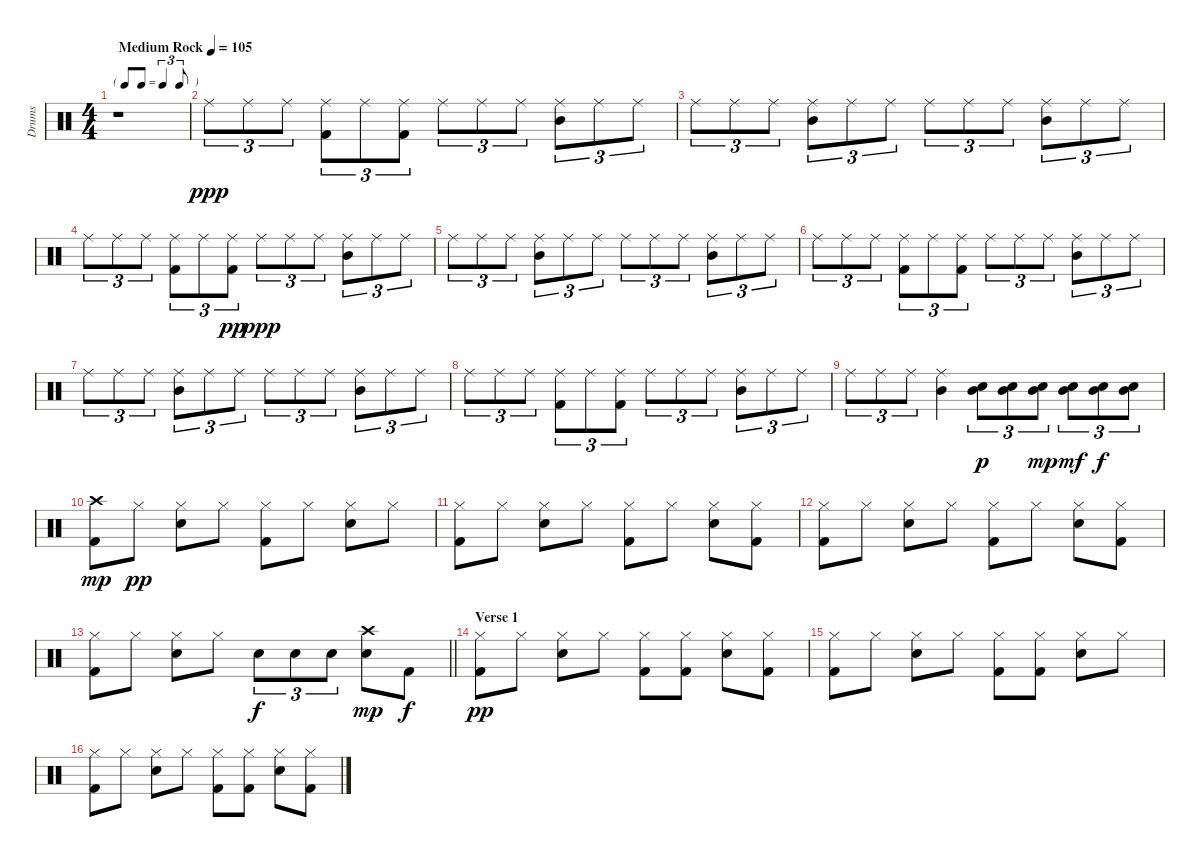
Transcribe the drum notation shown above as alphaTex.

\track ("Drums" "Drums") {instrument percussion}
\staff {score}
\articulation defaults
\ts (4 4)
\tf triplet8th
\tempo (105 "Medium Rock")
\clef neutral
\ks c
r.1{dy ppp} |
"Ride (middle)".8{tu (3 2)} "Ride (middle)".8{tu (3 2)} "Ride (middle)".8{tu (3 2)} ("Ride (middle)" "Kick (hit) 2").8{tu (3 2)} "Ride (middle)".8{tu (3 2)} ("Ride (middle)" "Kick (hit) 2").8{tu (3 2)} "Ride (middle)".8{tu (3 2)} "Ride (middle)".8{tu (3 2)} "Ride (middle)".8{tu (3 2)} ("Ride (middle)" "Mid Tom (hit)").8{tu (3 2)} "Ride (middle)".8{tu (3 2)} "Ride (middle)".8{tu (3 2)} |
"Ride (middle)".8{tu (3 2)} "Ride (middle)".8{tu (3 2)} "Ride (middle)".8{tu (3 2)} ("Ride (middle)" "Mid Tom (hit)").8{tu (3 2)} "Ride (middle)".8{tu (3 2)} "Ride (middle)".8{tu (3 2)} "Ride (middle)".8{tu (3 2)} "Ride (middle)".8{tu (3 2)} "Ride (middle)".8{tu (3 2)} ("Ride (middle)" "Mid Tom (hit)").8{tu (3 2)} "Ride (middle)".8{tu (3 2)} "Ride (middle)".8{tu (3 2)} |
"Ride (middle)".8{tu (3 2)} "Ride (middle)".8{tu (3 2)} "Ride (middle)".8{tu (3 2)} ("Ride (middle)" "Kick (hit) 2").8{tu (3 2)} "Ride (middle)".8{tu (3 2)} ("Ride (middle)" "Kick (hit) 2").8{tu (3 2) dy pp} "Ride (middle)".8{tu (3 2) dy ppp} "Ride (middle)".8{tu (3 2)} "Ride (middle)".8{tu (3 2)} ("Ride (middle)" "Mid Tom (hit)").8{tu (3 2)} "Ride (middle)".8{tu (3 2)} "Ride (middle)".8{tu (3 2)} |
"Ride (middle)".8{tu (3 2)} "Ride (middle)".8{tu (3 2)} "Ride (middle)".8{tu (3 2)} ("Ride (middle)" "Mid Tom (hit)").8{tu (3 2)} "Ride (middle)".8{tu (3 2)} "Ride (middle)".8{tu (3 2)} "Ride (middle)".8{tu (3 2)} "Ride (middle)".8{tu (3 2)} "Ride (middle)".8{tu (3 2)} ("Ride (middle)" "Mid Tom (hit)").8{tu (3 2)} "Ride (middle)".8{tu (3 2)} "Ride (middle)".8{tu (3 2)} |
"Ride (middle)".8{tu (3 2)} "Ride (middle)".8{tu (3 2)} "Ride (middle)".8{tu (3 2)} ("Ride (middle)" "Kick (hit) 2").8{tu (3 2)} "Ride (middle)".8{tu (3 2)} ("Ride (middle)" "Kick (hit) 2").8{tu (3 2)} "Ride (middle)".8{tu (3 2)} "Ride (middle)".8{tu (3 2)} "Ride (middle)".8{tu (3 2)} ("Ride (middle)" "Mid Tom (hit)").8{tu (3 2)} "Ride (middle)".8{tu (3 2)} "Ride (middle)".8{tu (3 2)} |
"Ride (middle)".8{tu (3 2)} "Ride (middle)".8{tu (3 2)} "Ride (middle)".8{tu (3 2)} ("Ride (middle)" "Mid Tom (hit)").8{tu (3 2)} "Ride (middle)".8{tu (3 2)} "Ride (middle)".8{tu (3 2)} "Ride (middle)".8{tu (3 2)} "Ride (middle)".8{tu (3 2)} "Ride (middle)".8{tu (3 2)} ("Ride (middle)" "Mid Tom (hit)").8{tu (3 2)} "Ride (middle)".8{tu (3 2)} "Ride (middle)".8{tu (3 2)} |
"Ride (middle)".8{tu (3 2)} "Ride (middle)".8{tu (3 2)} "Ride (middle)".8{tu (3 2)} ("Ride (middle)" "Kick (hit) 2").8{tu (3 2)} "Ride (middle)".8{tu (3 2)} ("Ride (middle)" "Kick (hit) 2").8{tu (3 2)} "Ride (middle)".8{tu (3 2)} "Ride (middle)".8{tu (3 2)} "Ride (middle)".8{tu (3 2)} ("Ride (middle)" "Mid Tom (hit)").8{tu (3 2)} "Ride (middle)".8{tu (3 2)} "Ride (middle)".8{tu (3 2)} |
"Ride (middle)".8{tu (3 2)} "Ride (middle)".8{tu (3 2)} "Ride (middle)".8{tu (3 2)} ("Ride (middle)" "Mid Tom (hit)").4 ("Mid Tom (hit)" "Electric Snare (hit)").8{tu (3 2) dy p} ("Mid Tom (hit)" "Electric Snare (hit)").8{tu (3 2)} ("Mid Tom (hit)" "Electric Snare (hit)").8{tu (3 2) dy mp} ("Mid Tom (hit)" "Electric Snare (hit)").8{tu (3 2) dy mf} ("Mid Tom (hit)" "Electric Snare (hit)").8{tu (3 2) dy f} ("Mid Tom (hit)" "Electric Snare (hit)").8{tu (3 2)} |
("Crash high (hit)" "Kick (hit) 2").8{dy mp} "Hi-Hat (closed)".8{dy pp} ("Hi-Hat (closed)" "Electric Snare (hit)").8 "Hi-Hat (closed)".8 ("Hi-Hat (closed)" "Kick (hit) 2").8 "Hi-Hat (closed)".8 ("Hi-Hat (closed)" "Electric Snare (hit)").8 "Hi-Hat (closed)".8 |
("Hi-Hat (closed)" "Kick (hit) 2").8 "Hi-Hat (closed)".8 ("Hi-Hat (closed)" "Electric Snare (hit)").8 "Hi-Hat (closed)".8 ("Hi-Hat (closed)" "Kick (hit) 2").8 "Hi-Hat (closed)".8 ("Hi-Hat (closed)" "Electric Snare (hit)").8 ("Hi-Hat (closed)" "Kick (hit) 2").8 |
("Hi-Hat (closed)" "Kick (hit) 2").8 "Hi-Hat (closed)".8 ("Hi-Hat (closed)" "Electric Snare (hit)").8 "Hi-Hat (closed)".8 ("Hi-Hat (closed)" "Kick (hit) 2").8 "Hi-Hat (closed)".8 ("Hi-Hat (closed)" "Electric Snare (hit)").8 ("Hi-Hat (closed)" "Kick (hit) 2").8 |
\barLineRight lightlight
("Hi-Hat (closed)" "Kick (hit) 2").8 "Hi-Hat (closed)".8 ("Hi-Hat (closed)" "Electric Snare (hit)").8 "Hi-Hat (closed)".8 "Electric Snare (hit)".8{tu (3 2) dy f} "Electric Snare (hit)".8{tu (3 2)} "Electric Snare (hit)".8{tu (3 2)} ("Electric Snare (hit)" "Crash high (hit)").8{dy mp} "Kick (hit) 2".8{dy f} |
\section ("" "Verse 1")
("Hi-Hat (closed)" "Kick (hit) 2").8{dy pp} "Hi-Hat (closed)".8 ("Hi-Hat (closed)" "Electric Snare (hit)").8 "Hi-Hat (closed)".8 ("Hi-Hat (closed)" "Kick (hit) 2").8 ("Hi-Hat (closed)" "Kick (hit) 2").8 ("Hi-Hat (closed)" "Electric Snare (hit)").8 ("Hi-Hat (closed)" "Kick (hit) 2").8 |
("Hi-Hat (closed)" "Kick (hit) 2").8 "Hi-Hat (closed)".8 ("Hi-Hat (closed)" "Electric Snare (hit)").8 "Hi-Hat (closed)".8 ("Hi-Hat (closed)" "Kick (hit) 2").8 ("Hi-Hat (closed)" "Kick (hit) 2").8 ("Hi-Hat (closed)" "Electric Snare (hit)").8 "Hi-Hat (closed)".8 |
("Hi-Hat (closed)" "Kick (hit) 2").8 "Hi-Hat (closed)".8 ("Hi-Hat (closed)" "Electric Snare (hit)").8 "Hi-Hat (closed)".8 ("Hi-Hat (closed)" "Kick (hit) 2").8 ("Hi-Hat (closed)" "Kick (hit) 2").8 ("Hi-Hat (closed)" "Electric Snare (hit)").8 ("Hi-Hat (closed)" "Kick (hit) 2").8
